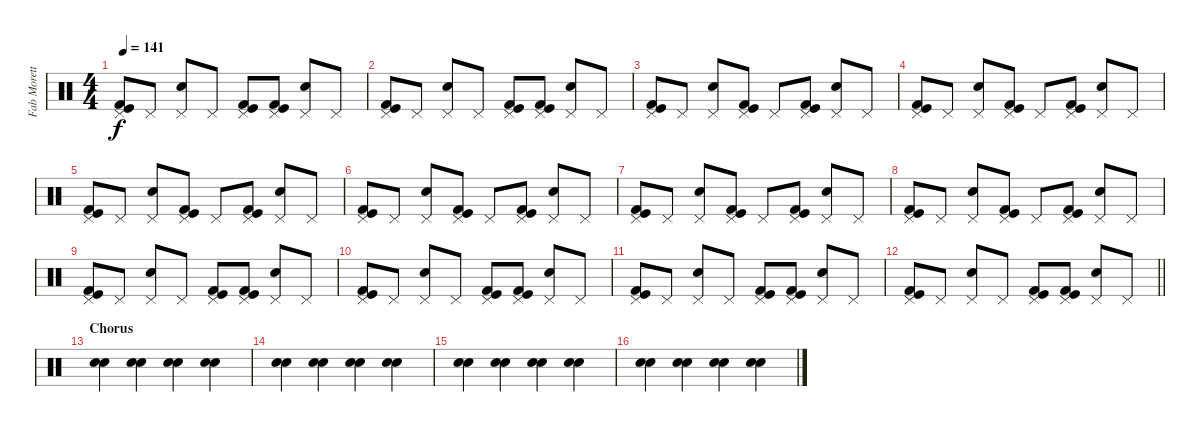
\track ("Fab Moretti - Drums" "Fab Morett") {instrument percussion}
\staff {score}
\articulation defaults
\ts (4 4)
\tempo 141
\clef neutral
\ks c
("Pedal Hi-Hat (hit)" "Kick (hit) 2" "Kick (hit)").8{dy f} "Pedal Hi-Hat (hit)".8 ("Pedal Hi-Hat (hit)" "Snare (hit) 2").8 "Pedal Hi-Hat (hit)".8 ("Pedal Hi-Hat (hit)" "Kick (hit) 2" "Kick (hit)").8 ("Pedal Hi-Hat (hit)" "Kick (hit) 2" "Kick (hit)").8 ("Pedal Hi-Hat (hit)" "Snare (hit) 2").8 "Pedal Hi-Hat (hit)".8 |
("Pedal Hi-Hat (hit)" "Kick (hit) 2" "Kick (hit)").8 "Pedal Hi-Hat (hit)".8 ("Pedal Hi-Hat (hit)" "Snare (hit) 2").8 "Pedal Hi-Hat (hit)".8 ("Pedal Hi-Hat (hit)" "Kick (hit) 2" "Kick (hit)").8 ("Pedal Hi-Hat (hit)" "Kick (hit) 2" "Kick (hit)").8 ("Pedal Hi-Hat (hit)" "Snare (hit) 2").8 "Pedal Hi-Hat (hit)".8 |
("Pedal Hi-Hat (hit)" "Kick (hit) 2" "Kick (hit)").8 "Pedal Hi-Hat (hit)".8 ("Pedal Hi-Hat (hit)" "Snare (hit) 2").8 ("Pedal Hi-Hat (hit)" "Kick (hit) 2" "Kick (hit)").8 "Pedal Hi-Hat (hit)".8 ("Pedal Hi-Hat (hit)" "Kick (hit) 2" "Kick (hit)").8 ("Pedal Hi-Hat (hit)" "Snare (hit) 2").8 "Pedal Hi-Hat (hit)".8 |
("Pedal Hi-Hat (hit)" "Kick (hit) 2" "Kick (hit)").8 "Pedal Hi-Hat (hit)".8 ("Pedal Hi-Hat (hit)" "Snare (hit) 2").8 ("Pedal Hi-Hat (hit)" "Kick (hit) 2" "Kick (hit)").8 "Pedal Hi-Hat (hit)".8 ("Pedal Hi-Hat (hit)" "Kick (hit) 2" "Kick (hit)").8 ("Pedal Hi-Hat (hit)" "Snare (hit) 2").8 "Pedal Hi-Hat (hit)".8 |
("Pedal Hi-Hat (hit)" "Kick (hit) 2" "Kick (hit)").8 "Pedal Hi-Hat (hit)".8 ("Pedal Hi-Hat (hit)" "Snare (hit) 2").8 ("Pedal Hi-Hat (hit)" "Kick (hit) 2" "Kick (hit)").8 "Pedal Hi-Hat (hit)".8 ("Pedal Hi-Hat (hit)" "Kick (hit) 2" "Kick (hit)").8 ("Pedal Hi-Hat (hit)" "Snare (hit) 2").8 "Pedal Hi-Hat (hit)".8 |
("Pedal Hi-Hat (hit)" "Kick (hit) 2" "Kick (hit)").8 "Pedal Hi-Hat (hit)".8 ("Pedal Hi-Hat (hit)" "Snare (hit) 2").8 ("Pedal Hi-Hat (hit)" "Kick (hit) 2" "Kick (hit)").8 "Pedal Hi-Hat (hit)".8 ("Pedal Hi-Hat (hit)" "Kick (hit) 2" "Kick (hit)").8 ("Pedal Hi-Hat (hit)" "Snare (hit) 2").8 "Pedal Hi-Hat (hit)".8 |
("Pedal Hi-Hat (hit)" "Kick (hit) 2" "Kick (hit)").8 "Pedal Hi-Hat (hit)".8 ("Pedal Hi-Hat (hit)" "Snare (hit) 2").8 ("Pedal Hi-Hat (hit)" "Kick (hit) 2" "Kick (hit)").8 "Pedal Hi-Hat (hit)".8 ("Pedal Hi-Hat (hit)" "Kick (hit) 2" "Kick (hit)").8 ("Pedal Hi-Hat (hit)" "Snare (hit) 2").8 "Pedal Hi-Hat (hit)".8 |
("Pedal Hi-Hat (hit)" "Kick (hit) 2" "Kick (hit)").8 "Pedal Hi-Hat (hit)".8 ("Pedal Hi-Hat (hit)" "Snare (hit) 2").8 ("Pedal Hi-Hat (hit)" "Kick (hit) 2" "Kick (hit)").8 "Pedal Hi-Hat (hit)".8 ("Pedal Hi-Hat (hit)" "Kick (hit) 2" "Kick (hit)").8 ("Pedal Hi-Hat (hit)" "Snare (hit) 2").8 "Pedal Hi-Hat (hit)".8 |
("Pedal Hi-Hat (hit)" "Kick (hit) 2" "Kick (hit)").8 "Pedal Hi-Hat (hit)".8 ("Pedal Hi-Hat (hit)" "Snare (hit) 2").8 "Pedal Hi-Hat (hit)".8 ("Pedal Hi-Hat (hit)" "Kick (hit) 2" "Kick (hit)").8 ("Pedal Hi-Hat (hit)" "Kick (hit) 2" "Kick (hit)").8 ("Pedal Hi-Hat (hit)" "Snare (hit) 2").8 "Pedal Hi-Hat (hit)".8 |
("Pedal Hi-Hat (hit)" "Kick (hit) 2" "Kick (hit)").8 "Pedal Hi-Hat (hit)".8 ("Pedal Hi-Hat (hit)" "Snare (hit) 2").8 "Pedal Hi-Hat (hit)".8 ("Pedal Hi-Hat (hit)" "Kick (hit) 2" "Kick (hit)").8 ("Pedal Hi-Hat (hit)" "Kick (hit) 2" "Kick (hit)").8 ("Pedal Hi-Hat (hit)" "Snare (hit) 2").8 "Pedal Hi-Hat (hit)".8 |
("Pedal Hi-Hat (hit)" "Kick (hit) 2" "Kick (hit)").8 "Pedal Hi-Hat (hit)".8 ("Pedal Hi-Hat (hit)" "Snare (hit) 2").8 "Pedal Hi-Hat (hit)".8 ("Pedal Hi-Hat (hit)" "Kick (hit) 2" "Kick (hit)").8 ("Pedal Hi-Hat (hit)" "Kick (hit) 2" "Kick (hit)").8 ("Pedal Hi-Hat (hit)" "Snare (hit) 2").8 "Pedal Hi-Hat (hit)".8 |
\barLineRight lightlight
("Pedal Hi-Hat (hit)" "Kick (hit) 2" "Kick (hit)").8 "Pedal Hi-Hat (hit)".8 ("Pedal Hi-Hat (hit)" "Snare (hit) 2").8 "Pedal Hi-Hat (hit)".8 ("Pedal Hi-Hat (hit)" "Kick (hit) 2" "Kick (hit)").8 ("Pedal Hi-Hat (hit)" "Kick (hit) 2" "Kick (hit)").8 ("Pedal Hi-Hat (hit)" "Snare (hit) 2").8 "Pedal Hi-Hat (hit)".8 |
\section ("" "Chorus")
("Snare (hit) 2" "Snare (hit) 2").4 ("Snare (hit) 2" "Snare (hit) 2").4 ("Snare (hit) 2" "Snare (hit) 2").4 ("Snare (hit) 2" "Snare (hit) 2").4 |
("Snare (hit) 2" "Snare (hit) 2").4 ("Snare (hit) 2" "Snare (hit) 2").4 ("Snare (hit) 2" "Snare (hit) 2").4 ("Snare (hit) 2" "Snare (hit) 2").4 |
("Snare (hit) 2" "Snare (hit) 2").4 ("Snare (hit) 2" "Snare (hit) 2").4 ("Snare (hit) 2" "Snare (hit) 2").4 ("Snare (hit) 2" "Snare (hit) 2").4 |
("Snare (hit) 2" "Snare (hit) 2").4 ("Snare (hit) 2" "Snare (hit) 2").4 ("Snare (hit) 2" "Snare (hit) 2").4 ("Snare (hit) 2" "Snare (hit) 2").4
